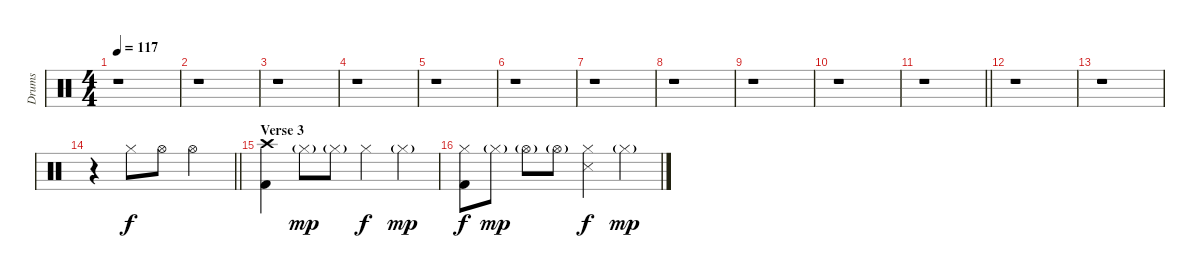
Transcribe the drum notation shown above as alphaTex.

\track ("Drums" "Drums") {instrument percussion}
\staff {score}
\articulation defaults
\ts (4 4)
\tempo 117
\clef neutral
\ks c
r.1{dy f} |
r.1 |
r.1 |
r.1 |
r.1 |
r.1 |
r.1 |
r.1 |
r.1 |
r.1 |
\barLineRight lightlight
r.1 |
r.1 |
r.1 |
\barLineRight lightlight
r.4 "Hi-Hat (closed)".8 "Hi-Hat (open)".8 "Hi-Hat (open)".2 |
\section ("" "Verse 3")
("Crash high (hit)" "Kick (hit) 2").4 "Hi-Hat (closed)"{g}.8{dy mp} "Hi-Hat (closed)"{g}.8 "Hi-Hat (closed)".4{dy f} "Hi-Hat (closed)"{g}.4{dy mp} |
("Hi-Hat (closed)" "Kick (hit) 2").8{dy f} "Hi-Hat (closed)"{g}.8{dy mp} "Hi-Hat (open)"{g}.8 "Hi-Hat (open)"{g}.8 ("Hi-Hat (closed)" "Snare (side stick) 3").4{dy f} "Hi-Hat (closed)"{g}.4{dy mp}
